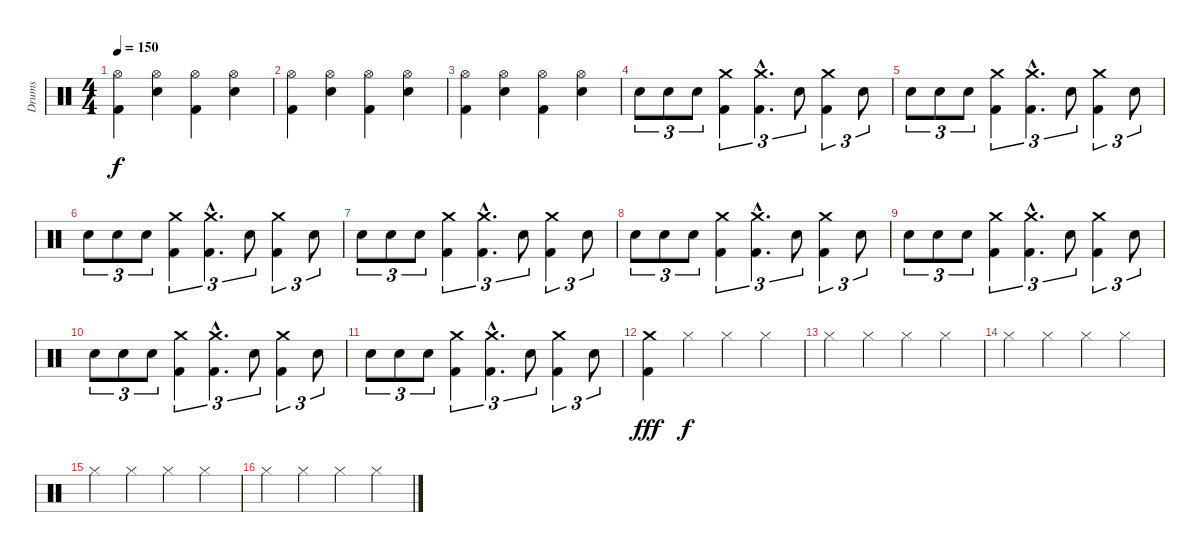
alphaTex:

\track ("Drums" "Drums") {instrument percussion}
\staff {score}
\articulation defaults
\ts (4 4)
\tempo 150
\clef neutral
\ks c
("Hi-Hat (open)" "Kick (hit) 2").4{dy f} ("Hi-Hat (open)" "Snare (hit) 2").4 ("Hi-Hat (open)" "Kick (hit) 2").4 ("Hi-Hat (open)" "Snare (hit) 2").4 |
("Hi-Hat (open)" "Kick (hit) 2").4 ("Hi-Hat (open)" "Snare (hit) 2").4 ("Hi-Hat (open)" "Kick (hit) 2").4 ("Hi-Hat (open)" "Snare (hit) 2").4 |
("Hi-Hat (open)" "Kick (hit) 2").4 ("Hi-Hat (open)" "Snare (hit) 2").4 ("Hi-Hat (open)" "Kick (hit) 2").4 ("Hi-Hat (open)" "Snare (hit) 2").4 |
"Snare (hit) 2".8{tu (3 2)} "Snare (hit) 2".8{tu (3 2)} "Snare (hit) 2".8{tu (3 2)} ("Crash medium (hit)" "Kick (hit) 2").4{tu (3 2)} ("Crash medium (hit)"{hac} "Kick (hit) 2"{hac}).4{d tu (3 2)} "Snare (hit) 2".8{tu (3 2)} ("Crash medium (hit)" "Kick (hit) 2").4{tu (3 2)} "Snare (hit) 2".8{tu (3 2)} |
"Snare (hit) 2".8{tu (3 2)} "Snare (hit) 2".8{tu (3 2)} "Snare (hit) 2".8{tu (3 2)} ("Crash medium (hit)" "Kick (hit) 2").4{tu (3 2)} ("Crash medium (hit)"{hac} "Kick (hit) 2"{hac}).4{d tu (3 2)} "Snare (hit) 2".8{tu (3 2)} ("Crash medium (hit)" "Kick (hit) 2").4{tu (3 2)} "Snare (hit) 2".8{tu (3 2)} |
"Snare (hit) 2".8{tu (3 2)} "Snare (hit) 2".8{tu (3 2)} "Snare (hit) 2".8{tu (3 2)} ("Crash medium (hit)" "Kick (hit) 2").4{tu (3 2)} ("Crash medium (hit)"{hac} "Kick (hit) 2"{hac}).4{d tu (3 2)} "Snare (hit) 2".8{tu (3 2)} ("Crash medium (hit)" "Kick (hit) 2").4{tu (3 2)} "Snare (hit) 2".8{tu (3 2)} |
"Snare (hit) 2".8{tu (3 2)} "Snare (hit) 2".8{tu (3 2)} "Snare (hit) 2".8{tu (3 2)} ("Crash medium (hit)" "Kick (hit) 2").4{tu (3 2)} ("Crash medium (hit)"{hac} "Kick (hit) 2"{hac}).4{d tu (3 2)} "Snare (hit) 2".8{tu (3 2)} ("Crash medium (hit)" "Kick (hit) 2").4{tu (3 2)} "Snare (hit) 2".8{tu (3 2)} |
"Snare (hit) 2".8{tu (3 2)} "Snare (hit) 2".8{tu (3 2)} "Snare (hit) 2".8{tu (3 2)} ("Crash medium (hit)" "Kick (hit) 2").4{tu (3 2)} ("Crash medium (hit)"{hac} "Kick (hit) 2"{hac}).4{d tu (3 2)} "Snare (hit) 2".8{tu (3 2)} ("Crash medium (hit)" "Kick (hit) 2").4{tu (3 2)} "Snare (hit) 2".8{tu (3 2)} |
"Snare (hit) 2".8{tu (3 2)} "Snare (hit) 2".8{tu (3 2)} "Snare (hit) 2".8{tu (3 2)} ("Crash medium (hit)" "Kick (hit) 2").4{tu (3 2)} ("Crash medium (hit)"{hac} "Kick (hit) 2"{hac}).4{d tu (3 2)} "Snare (hit) 2".8{tu (3 2)} ("Crash medium (hit)" "Kick (hit) 2").4{tu (3 2)} "Snare (hit) 2".8{tu (3 2)} |
"Snare (hit) 2".8{tu (3 2)} "Snare (hit) 2".8{tu (3 2)} "Snare (hit) 2".8{tu (3 2)} ("Crash medium (hit)" "Kick (hit) 2").4{tu (3 2)} ("Crash medium (hit)"{hac} "Kick (hit) 2"{hac}).4{d tu (3 2)} "Snare (hit) 2".8{tu (3 2)} ("Crash medium (hit)" "Kick (hit) 2").4{tu (3 2)} "Snare (hit) 2".8{tu (3 2)} |
"Snare (hit) 2".8{tu (3 2)} "Snare (hit) 2".8{tu (3 2)} "Snare (hit) 2".8{tu (3 2)} ("Crash medium (hit)" "Kick (hit) 2").4{tu (3 2)} ("Crash medium (hit)"{hac} "Kick (hit) 2"{hac}).4{d tu (3 2)} "Snare (hit) 2".8{tu (3 2)} ("Crash medium (hit)" "Kick (hit) 2").4{tu (3 2)} "Snare (hit) 2".8{tu (3 2)} |
("Crash medium (hit)" "Kick (hit) 2").4{dy fff volume 11} "Hi-Hat (closed)".4{dy f} "Hi-Hat (closed)".4 "Hi-Hat (closed)".4 |
"Hi-Hat (closed)".4 "Hi-Hat (closed)".4 "Hi-Hat (closed)".4 "Hi-Hat (closed)".4 |
"Hi-Hat (closed)".4 "Hi-Hat (closed)".4 "Hi-Hat (closed)".4 "Hi-Hat (closed)".4 |
"Hi-Hat (closed)".4 "Hi-Hat (closed)".4 "Hi-Hat (closed)".4 "Hi-Hat (closed)".4 |
"Hi-Hat (closed)".4 "Hi-Hat (closed)".4 "Hi-Hat (closed)".4 "Hi-Hat (closed)".4
